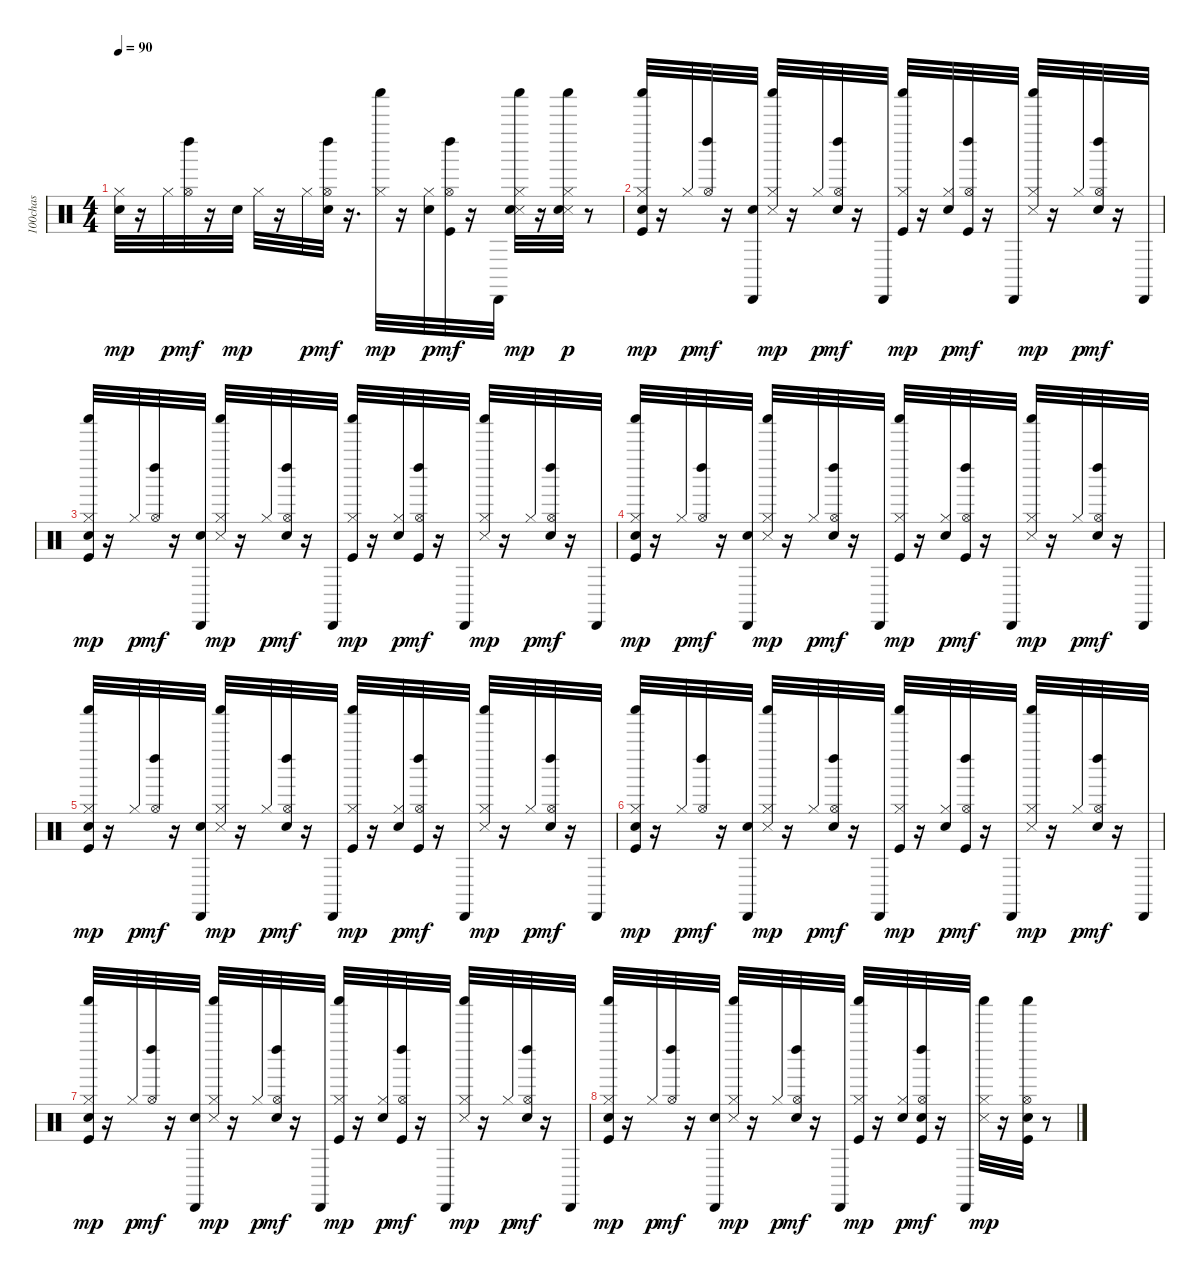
\track ("100chas" "100chas") {instrument percussion}
\staff {score}
\articulation defaults
\ts (4 4)
\tempo 90
\clef neutral
\ks c
("Hand Clap (hit)" "Hi-Hat (closed)").32{dy mp} r.16 "Hi-Hat (closed)".32{dy p} ("Hi-Hat (open)" "Left Maraca (hit)").32{dy mf} r.16 "Hand Clap (hit)".32{dy mp} "Hi-Hat (closed)".32 r.16 "Hi-Hat (closed)".32{dy p} ("Hand Clap (hit)" "Hi-Hat (open)" "Left Maraca (hit)").32{dy mf} r.16{d} ("Hi-Hat (closed)" "Shaker (hit)").32{dy mp} r.16 ("Hand Clap (hit)" "Hi-Hat (closed)").32{dy p} ("Kick (hit)" "Hi-Hat (open)" "Left Maraca (hit)").32{dy mf} r.16 "Cabasa (hit)".32 ("Snare (side stick) 3" "Hand Clap (hit)" "Hi-Hat (closed)" "Shaker (hit)").32{dy mp} r.16 ("Snare (side stick) 3" "Hand Clap (hit)" "Hi-Hat (closed)" "Shaker (hit)").32{dy p} r.8 |
("Kick (hit)" "Hand Clap (hit)" "Hi-Hat (closed)" "Shaker (hit)").32{dy mp} r.16 "Hi-Hat (closed)".32{dy p} ("Hi-Hat (open)" "Left Maraca (hit)").32{dy mf} r.16 ("Hand Clap (hit)" "Cabasa (hit)").32 ("Snare (side stick) 3" "Hi-Hat (closed)" "Shaker (hit)").32{dy mp} r.16 "Hi-Hat (closed)".32{dy p} ("Hand Clap (hit)" "Hi-Hat (open)" "Left Maraca (hit)").32{dy mf} r.16 "Cabasa (hit)".32 ("Kick (hit)" "Hi-Hat (closed)" "Shaker (hit)").32{dy mp} r.16 ("Hand Clap (hit)" "Hi-Hat (closed)").32{dy p} ("Kick (hit)" "Hi-Hat (open)" "Left Maraca (hit)").32{dy mf} r.16 "Cabasa (hit)".32 ("Snare (side stick) 3" "Hi-Hat (closed)" "Shaker (hit)").32{dy mp} r.16 "Hi-Hat (closed)".32{dy p} ("Hand Clap (hit)" "Hi-Hat (open)" "Left Maraca (hit)").32{dy mf} r.16 "Cabasa (hit)".32 |
("Kick (hit)" "Hand Clap (hit)" "Hi-Hat (closed)" "Shaker (hit)").32{dy mp} r.16 "Hi-Hat (closed)".32{dy p} ("Hi-Hat (open)" "Left Maraca (hit)").32{dy mf} r.16 ("Hand Clap (hit)" "Cabasa (hit)").32 ("Snare (side stick) 3" "Hi-Hat (closed)" "Shaker (hit)").32{dy mp} r.16 "Hi-Hat (closed)".32{dy p} ("Hand Clap (hit)" "Hi-Hat (open)" "Left Maraca (hit)").32{dy mf} r.16 "Cabasa (hit)".32 ("Kick (hit)" "Hi-Hat (closed)" "Shaker (hit)").32{dy mp} r.16 ("Hand Clap (hit)" "Hi-Hat (closed)").32{dy p} ("Kick (hit)" "Hi-Hat (open)" "Left Maraca (hit)").32{dy mf} r.16 "Cabasa (hit)".32 ("Snare (side stick) 3" "Hi-Hat (closed)" "Shaker (hit)").32{dy mp} r.16 "Hi-Hat (closed)".32{dy p} ("Hand Clap (hit)" "Hi-Hat (open)" "Left Maraca (hit)").32{dy mf} r.16 "Cabasa (hit)".32 |
("Kick (hit)" "Hand Clap (hit)" "Hi-Hat (closed)" "Shaker (hit)").32{dy mp} r.16 "Hi-Hat (closed)".32{dy p} ("Hi-Hat (open)" "Left Maraca (hit)").32{dy mf} r.16 ("Hand Clap (hit)" "Cabasa (hit)").32 ("Snare (side stick) 3" "Hi-Hat (closed)" "Shaker (hit)").32{dy mp} r.16 "Hi-Hat (closed)".32{dy p} ("Hand Clap (hit)" "Hi-Hat (open)" "Left Maraca (hit)").32{dy mf} r.16 "Cabasa (hit)".32 ("Kick (hit)" "Hi-Hat (closed)" "Shaker (hit)").32{dy mp} r.16 ("Hand Clap (hit)" "Hi-Hat (closed)").32{dy p} ("Kick (hit)" "Hi-Hat (open)" "Left Maraca (hit)").32{dy mf} r.16 "Cabasa (hit)".32 ("Snare (side stick) 3" "Hi-Hat (closed)" "Shaker (hit)").32{dy mp} r.16 "Hi-Hat (closed)".32{dy p} ("Hand Clap (hit)" "Hi-Hat (open)" "Left Maraca (hit)").32{dy mf} r.16 "Cabasa (hit)".32 |
("Kick (hit)" "Hand Clap (hit)" "Hi-Hat (closed)" "Shaker (hit)").32{dy mp} r.16 "Hi-Hat (closed)".32{dy p} ("Hi-Hat (open)" "Left Maraca (hit)").32{dy mf} r.16 ("Hand Clap (hit)" "Cabasa (hit)").32 ("Snare (side stick) 3" "Hi-Hat (closed)" "Shaker (hit)").32{dy mp} r.16 "Hi-Hat (closed)".32{dy p} ("Hand Clap (hit)" "Hi-Hat (open)" "Left Maraca (hit)").32{dy mf} r.16 "Cabasa (hit)".32 ("Kick (hit)" "Hi-Hat (closed)" "Shaker (hit)").32{dy mp} r.16 ("Hand Clap (hit)" "Hi-Hat (closed)").32{dy p} ("Kick (hit)" "Hi-Hat (open)" "Left Maraca (hit)").32{dy mf} r.16 "Cabasa (hit)".32 ("Snare (side stick) 3" "Hi-Hat (closed)" "Shaker (hit)").32{dy mp} r.16 "Hi-Hat (closed)".32{dy p} ("Hand Clap (hit)" "Hi-Hat (open)" "Left Maraca (hit)").32{dy mf} r.16 "Cabasa (hit)".32 |
("Kick (hit)" "Hand Clap (hit)" "Hi-Hat (closed)" "Shaker (hit)").32{dy mp} r.16 "Hi-Hat (closed)".32{dy p} ("Hi-Hat (open)" "Left Maraca (hit)").32{dy mf} r.16 ("Hand Clap (hit)" "Cabasa (hit)").32 ("Snare (side stick) 3" "Hi-Hat (closed)" "Shaker (hit)").32{dy mp} r.16 "Hi-Hat (closed)".32{dy p} ("Hand Clap (hit)" "Hi-Hat (open)" "Left Maraca (hit)").32{dy mf} r.16 "Cabasa (hit)".32 ("Kick (hit)" "Hi-Hat (closed)" "Shaker (hit)").32{dy mp} r.16 ("Hand Clap (hit)" "Hi-Hat (closed)").32{dy p} ("Kick (hit)" "Hi-Hat (open)" "Left Maraca (hit)").32{dy mf} r.16 "Cabasa (hit)".32 ("Snare (side stick) 3" "Hi-Hat (closed)" "Shaker (hit)").32{dy mp} r.16 "Hi-Hat (closed)".32{dy p} ("Hand Clap (hit)" "Hi-Hat (open)" "Left Maraca (hit)").32{dy mf} r.16 "Cabasa (hit)".32 |
("Kick (hit)" "Hand Clap (hit)" "Hi-Hat (closed)" "Shaker (hit)").32{dy mp} r.16 "Hi-Hat (closed)".32{dy p} ("Hi-Hat (open)" "Left Maraca (hit)").32{dy mf} r.16 ("Hand Clap (hit)" "Cabasa (hit)").32 ("Snare (side stick) 3" "Hi-Hat (closed)" "Shaker (hit)").32{dy mp} r.16 "Hi-Hat (closed)".32{dy p} ("Hand Clap (hit)" "Hi-Hat (open)" "Left Maraca (hit)").32{dy mf} r.16 "Cabasa (hit)".32 ("Kick (hit)" "Hi-Hat (closed)" "Shaker (hit)").32{dy mp} r.16 ("Hand Clap (hit)" "Hi-Hat (closed)").32{dy p} ("Kick (hit)" "Hi-Hat (open)" "Left Maraca (hit)").32{dy mf} r.16 "Cabasa (hit)".32 ("Snare (side stick) 3" "Hi-Hat (closed)" "Shaker (hit)").32{dy mp} r.16 "Hi-Hat (closed)".32{dy p} ("Hand Clap (hit)" "Hi-Hat (open)" "Left Maraca (hit)").32{dy mf} r.16 "Cabasa (hit)".32 |
("Kick (hit)" "Hand Clap (hit)" "Hi-Hat (closed)" "Shaker (hit)").32{dy mp} r.16 "Hi-Hat (closed)".32{dy p} ("Hi-Hat (open)" "Left Maraca (hit)").32{dy mf} r.16 ("Hand Clap (hit)" "Cabasa (hit)").32 ("Snare (side stick) 3" "Hi-Hat (closed)" "Shaker (hit)").32{dy mp} r.16 "Hi-Hat (closed)".32{dy p} ("Hand Clap (hit)" "Hi-Hat (open)" "Left Maraca (hit)").32{dy mf} r.16 "Cabasa (hit)".32 ("Kick (hit)" "Hi-Hat (closed)" "Shaker (hit)").32{dy mp} r.16 ("Hand Clap (hit)" "Hi-Hat (closed)").32{dy p} ("Kick (hit)" "Hand Clap (hit)" "Hi-Hat (open)" "Left Maraca (hit)").32{dy mf} r.16 "Cabasa (hit)".32 ("Snare (side stick) 3" "Hi-Hat (closed)" "Shaker (hit)").32{dy mp} r.16 ("Kick (hit)" "Hand Clap (hit)" "Hi-Hat (open)" "Shaker (hit)").32 r.8
